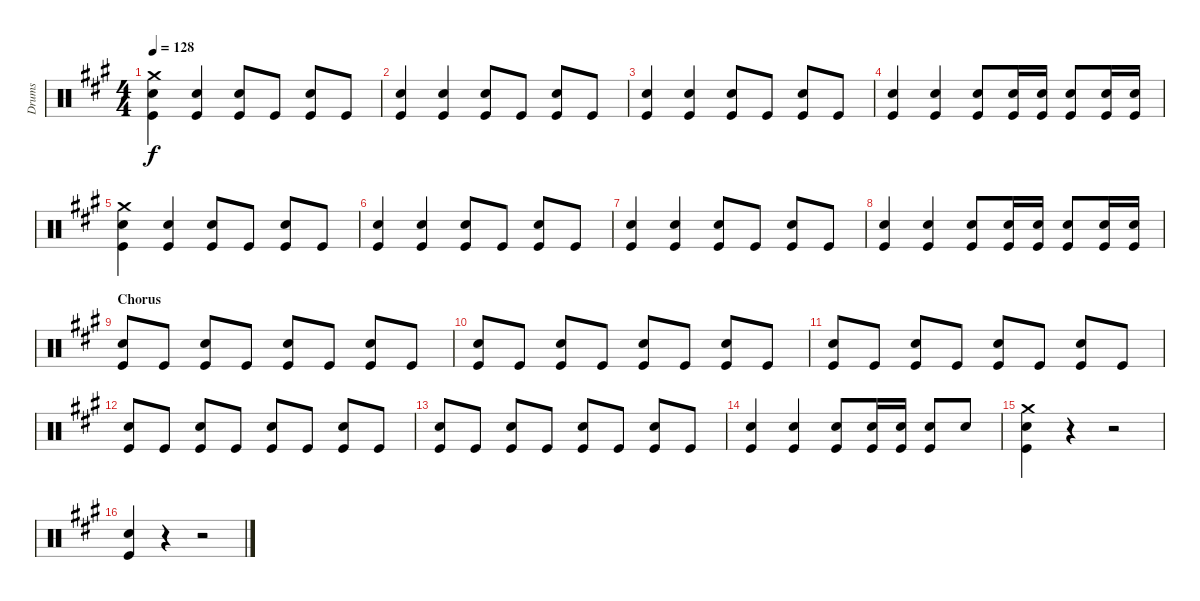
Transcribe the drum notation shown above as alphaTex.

\defaultSystemsLayout 4
\bracketExtendMode groupsimilarinstruments
\otherSystemsTrackNameOrientation horizontal
\track ("Drumkit" "Drums") {instrument percussion}
\staff {score}
\articulation defaults
\ts (4 4)
\tempo 128
\clef neutral
\ks a
("Crash medium (hit)" "Snare (hit) 2" "Kick (hit)").4{dy f} ("Snare (hit) 2" "Kick (hit)").4 ("Snare (hit) 2" "Kick (hit)").8 "Kick (hit)".8 ("Snare (hit) 2" "Kick (hit)").8 "Kick (hit)".8 |
("Snare (hit) 2" "Kick (hit)").4 ("Snare (hit) 2" "Kick (hit)").4 ("Snare (hit) 2" "Kick (hit)").8 "Kick (hit)".8 ("Snare (hit) 2" "Kick (hit)").8 "Kick (hit)".8 |
("Snare (hit) 2" "Kick (hit)").4 ("Snare (hit) 2" "Kick (hit)").4 ("Snare (hit) 2" "Kick (hit)").8 "Kick (hit)".8 ("Snare (hit) 2" "Kick (hit)").8 "Kick (hit)".8 |
("Snare (hit) 2" "Kick (hit)").4 ("Snare (hit) 2" "Kick (hit)").4 ("Snare (hit) 2" "Kick (hit)").8 ("Snare (hit) 2" "Kick (hit)").16 ("Snare (hit) 2" "Kick (hit)").16 ("Snare (hit) 2" "Kick (hit)").8 ("Snare (hit) 2" "Kick (hit)").16 ("Snare (hit) 2" "Kick (hit)").16 |
("Crash medium (hit)" "Snare (hit) 2" "Kick (hit)").4 ("Snare (hit) 2" "Kick (hit)").4 ("Snare (hit) 2" "Kick (hit)").8 "Kick (hit)".8 ("Snare (hit) 2" "Kick (hit)").8 "Kick (hit)".8 |
("Snare (hit) 2" "Kick (hit)").4 ("Snare (hit) 2" "Kick (hit)").4 ("Snare (hit) 2" "Kick (hit)").8 "Kick (hit)".8 ("Snare (hit) 2" "Kick (hit)").8 "Kick (hit)".8 |
("Snare (hit) 2" "Kick (hit)").4 ("Snare (hit) 2" "Kick (hit)").4 ("Snare (hit) 2" "Kick (hit)").8 "Kick (hit)".8 ("Snare (hit) 2" "Kick (hit)").8 "Kick (hit)".8 |
("Snare (hit) 2" "Kick (hit)").4 ("Snare (hit) 2" "Kick (hit)").4 ("Snare (hit) 2" "Kick (hit)").8 ("Snare (hit) 2" "Kick (hit)").16 ("Snare (hit) 2" "Kick (hit)").16 ("Snare (hit) 2" "Kick (hit)").8 ("Snare (hit) 2" "Kick (hit)").16 ("Snare (hit) 2" "Kick (hit)").16 |
\section ("" "Chorus")
("Snare (hit) 2" "Kick (hit)").8 "Kick (hit)".8 ("Snare (hit) 2" "Kick (hit)").8 "Kick (hit)".8 ("Snare (hit) 2" "Kick (hit)").8 "Kick (hit)".8 ("Snare (hit) 2" "Kick (hit)").8 "Kick (hit)".8 |
("Snare (hit) 2" "Kick (hit)").8 "Kick (hit)".8 ("Snare (hit) 2" "Kick (hit)").8 "Kick (hit)".8 ("Snare (hit) 2" "Kick (hit)").8 "Kick (hit)".8 ("Snare (hit) 2" "Kick (hit)").8 "Kick (hit)".8 |
("Snare (hit) 2" "Kick (hit)").8 "Kick (hit)".8 ("Snare (hit) 2" "Kick (hit)").8 "Kick (hit)".8 ("Snare (hit) 2" "Kick (hit)").8 "Kick (hit)".8 ("Snare (hit) 2" "Kick (hit)").8 "Kick (hit)".8 |
("Snare (hit) 2" "Kick (hit)").8 "Kick (hit)".8 ("Snare (hit) 2" "Kick (hit)").8 "Kick (hit)".8 ("Snare (hit) 2" "Kick (hit)").8 "Kick (hit)".8 ("Snare (hit) 2" "Kick (hit)").8 "Kick (hit)".8 |
("Snare (hit) 2" "Kick (hit)").8 "Kick (hit)".8 ("Snare (hit) 2" "Kick (hit)").8 "Kick (hit)".8 ("Snare (hit) 2" "Kick (hit)").8 "Kick (hit)".8 ("Snare (hit) 2" "Kick (hit)").8 "Kick (hit)".8 |
("Snare (hit) 2" "Kick (hit)").4 ("Snare (hit) 2" "Kick (hit)").4 ("Snare (hit) 2" "Kick (hit)").8 ("Snare (hit) 2" "Kick (hit)").16 ("Snare (hit) 2" "Kick (hit)").16 ("Snare (hit) 2" "Kick (hit)").8 "Snare (hit) 2".8 |
("Snare (hit) 2" "Kick (hit)" "Crash medium (hit)").4 r.4 r.2 |
("Snare (hit) 2" "Kick (hit)").4 r.4 r.2
